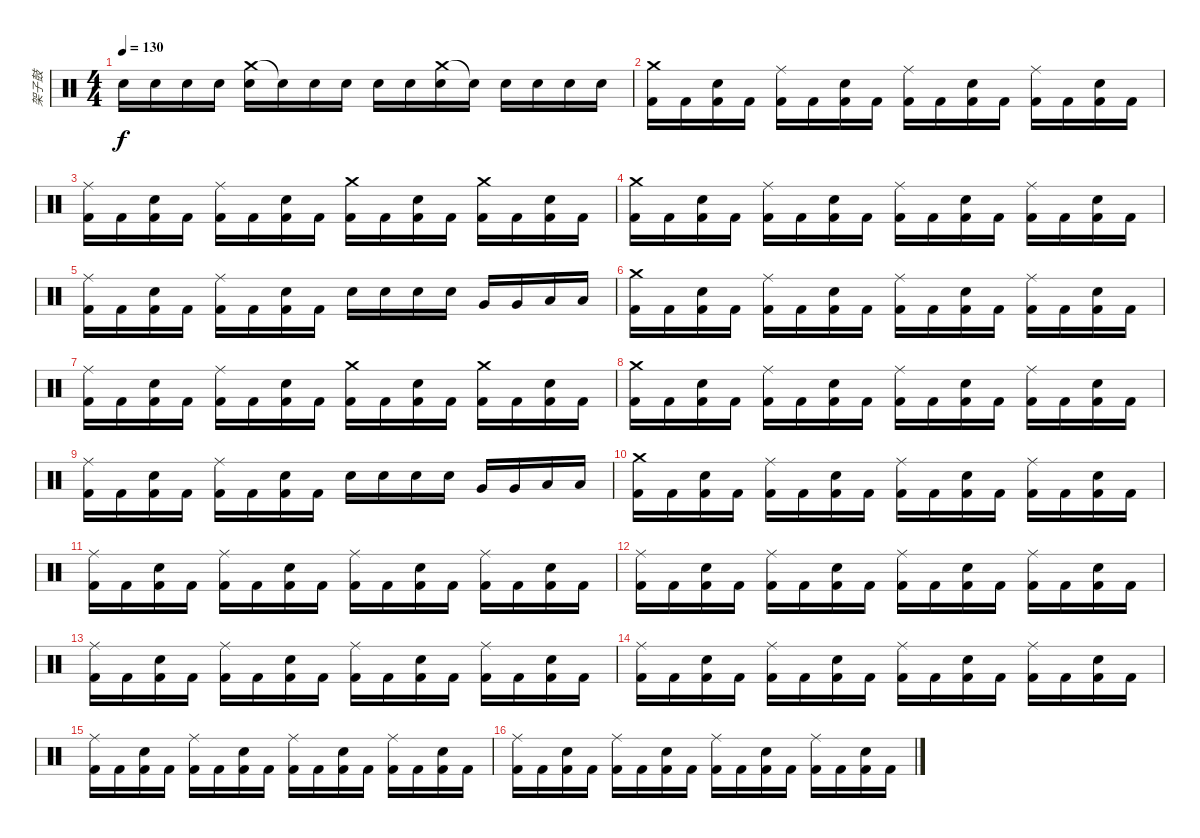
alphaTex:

\track ("架子鼓" "架子鼓") {instrument percussion}
\staff {score}
\articulation defaults
\ts (4 4)
\tempo 130
\clef neutral
\ks c "Snare (hit) 2".16{dy f} "Snare (hit) 2".16 "Snare (hit) 2".16 "Snare (hit) 2".16
("Crash medium (hit)" "Snare (hit) 2").16 "Snare (hit)"{t}.16 "Snare (hit) 2".16 "Snare (hit) 2".16 "Snare (hit) 2".16 "Snare (hit) 2".16 ("Crash medium (hit)" "Snare (hit) 2").16 "Snare (hit)"{t}.16 "Snare (hit) 2".16 "Snare (hit) 2".16 "Snare (hit) 2".16 "Snare (hit) 2".16 |
("Crash medium (hit)" "Kick (hit) 2").16 "Kick (hit) 2".16 ("Snare (hit) 2" "Kick (hit) 2").16 "Kick (hit) 2".16 ("Ride (middle)" "Kick (hit) 2").16 "Kick (hit) 2".16 ("Snare (hit) 2" "Kick (hit) 2").16 "Kick (hit) 2".16 ("Ride (middle)" "Kick (hit) 2").16 "Kick (hit) 2".16 ("Snare (hit) 2" "Kick (hit) 2").16 "Kick (hit) 2".16 ("Ride (middle)" "Kick (hit) 2").16 "Kick (hit) 2".16 ("Snare (hit) 2" "Kick (hit) 2").16 "Kick (hit) 2".16 |
("Ride (middle)" "Kick (hit) 2").16 "Kick (hit) 2".16 ("Snare (hit) 2" "Kick (hit) 2").16 "Kick (hit) 2".16 ("Ride (middle)" "Kick (hit) 2").16 "Kick (hit) 2".16 ("Snare (hit) 2" "Kick (hit) 2").16 "Kick (hit) 2".16 ("Crash medium (hit)" "Kick (hit) 2").16 "Kick (hit) 2".16 ("Snare (hit) 2" "Kick (hit) 2").16 "Kick (hit) 2".16 ("Crash medium (hit)" "Kick (hit) 2").16 "Kick (hit) 2".16 ("Snare (hit) 2" "Kick (hit) 2").16 "Kick (hit) 2".16 |
("Crash medium (hit)" "Kick (hit) 2").16 "Kick (hit) 2".16 ("Snare (hit) 2" "Kick (hit) 2").16 "Kick (hit) 2".16 ("Ride (middle)" "Kick (hit) 2").16 "Kick (hit) 2".16 ("Snare (hit) 2" "Kick (hit) 2").16 "Kick (hit) 2".16 ("Ride (middle)" "Kick (hit) 2").16 "Kick (hit) 2".16 ("Snare (hit) 2" "Kick (hit) 2").16 "Kick (hit) 2".16 ("Ride (middle)" "Kick (hit) 2").16 "Kick (hit) 2".16 ("Snare (hit) 2" "Kick (hit) 2").16 "Kick (hit) 2".16 |
("Ride (middle)" "Kick (hit) 2").16 "Kick (hit) 2".16 ("Snare (hit) 2" "Kick (hit) 2").16 "Kick (hit) 2".16 ("Ride (middle)" "Kick (hit) 2").16 "Kick (hit) 2".16 ("Snare (hit) 2" "Kick (hit) 2").16 "Kick (hit) 2".16 "Snare (hit) 2".16 "Snare (hit) 2".16 "Snare (hit) 2".16 "Snare (hit) 2".16 "Very Low Tom (hit)".16 "Very Low Tom (hit)".16 "Low Floor Tom (hit)".16 "Low Floor Tom (hit)".16 |
("Crash medium (hit)" "Kick (hit) 2").16 "Kick (hit) 2".16 ("Snare (hit) 2" "Kick (hit) 2").16 "Kick (hit) 2".16 ("Ride (middle)" "Kick (hit) 2").16 "Kick (hit) 2".16 ("Snare (hit) 2" "Kick (hit) 2").16 "Kick (hit) 2".16 ("Ride (middle)" "Kick (hit) 2").16 "Kick (hit) 2".16 ("Snare (hit) 2" "Kick (hit) 2").16 "Kick (hit) 2".16 ("Ride (middle)" "Kick (hit) 2").16 "Kick (hit) 2".16 ("Snare (hit) 2" "Kick (hit) 2").16 "Kick (hit) 2".16 |
("Ride (middle)" "Kick (hit) 2").16 "Kick (hit) 2".16 ("Snare (hit) 2" "Kick (hit) 2").16 "Kick (hit) 2".16 ("Ride (middle)" "Kick (hit) 2").16 "Kick (hit) 2".16 ("Snare (hit) 2" "Kick (hit) 2").16 "Kick (hit) 2".16 ("Crash medium (hit)" "Kick (hit) 2").16 "Kick (hit) 2".16 ("Snare (hit) 2" "Kick (hit) 2").16 "Kick (hit) 2".16 ("Crash medium (hit)" "Kick (hit) 2").16 "Kick (hit) 2".16 ("Snare (hit) 2" "Kick (hit) 2").16 "Kick (hit) 2".16 |
("Crash medium (hit)" "Kick (hit) 2").16 "Kick (hit) 2".16 ("Snare (hit) 2" "Kick (hit) 2").16 "Kick (hit) 2".16 ("Ride (middle)" "Kick (hit) 2").16 "Kick (hit) 2".16 ("Snare (hit) 2" "Kick (hit) 2").16 "Kick (hit) 2".16 ("Ride (middle)" "Kick (hit) 2").16 "Kick (hit) 2".16 ("Snare (hit) 2" "Kick (hit) 2").16 "Kick (hit) 2".16 ("Ride (middle)" "Kick (hit) 2").16 "Kick (hit) 2".16 ("Snare (hit) 2" "Kick (hit) 2").16 "Kick (hit) 2".16 |
("Ride (middle)" "Kick (hit) 2").16 "Kick (hit) 2".16 ("Snare (hit) 2" "Kick (hit) 2").16 "Kick (hit) 2".16 ("Ride (middle)" "Kick (hit) 2").16 "Kick (hit) 2".16 ("Snare (hit) 2" "Kick (hit) 2").16 "Kick (hit) 2".16 "Snare (hit) 2".16 "Snare (hit) 2".16 "Snare (hit) 2".16 "Snare (hit) 2".16 "Very Low Tom (hit)".16 "Very Low Tom (hit)".16 "Low Floor Tom (hit)".16 "Low Floor Tom (hit)".16 |
("Crash medium (hit)" "Kick (hit) 2").16 "Kick (hit) 2".16 ("Snare (hit) 2" "Kick (hit) 2").16 "Kick (hit) 2".16 ("Ride (middle)" "Kick (hit) 2").16 "Kick (hit) 2".16 ("Snare (hit) 2" "Kick (hit) 2").16 "Kick (hit) 2".16 ("Ride (middle)" "Kick (hit) 2").16 "Kick (hit) 2".16 ("Snare (hit) 2" "Kick (hit) 2").16 "Kick (hit) 2".16 ("Ride (middle)" "Kick (hit) 2").16 "Kick (hit) 2".16 ("Snare (hit) 2" "Kick (hit) 2").16 "Kick (hit) 2".16 |
("Ride (middle)" "Kick (hit) 2").16 "Kick (hit) 2".16 ("Snare (hit) 2" "Kick (hit) 2").16 "Kick (hit) 2".16 ("Ride (middle)" "Kick (hit) 2").16 "Kick (hit) 2".16 ("Snare (hit) 2" "Kick (hit) 2").16 "Kick (hit) 2".16 ("Ride (middle)" "Kick (hit) 2").16 "Kick (hit) 2".16 ("Snare (hit) 2" "Kick (hit) 2").16 "Kick (hit) 2".16 ("Ride (middle)" "Kick (hit) 2").16 "Kick (hit) 2".16 ("Snare (hit) 2" "Kick (hit) 2").16 "Kick (hit) 2".16 |
("Ride (middle)" "Kick (hit) 2").16 "Kick (hit) 2".16 ("Snare (hit) 2" "Kick (hit) 2").16 "Kick (hit) 2".16 ("Ride (middle)" "Kick (hit) 2").16 "Kick (hit) 2".16 ("Snare (hit) 2" "Kick (hit) 2").16 "Kick (hit) 2".16 ("Ride (middle)" "Kick (hit) 2").16 "Kick (hit) 2".16 ("Snare (hit) 2" "Kick (hit) 2").16 "Kick (hit) 2".16 ("Ride (middle)" "Kick (hit) 2").16 "Kick (hit) 2".16 ("Snare (hit) 2" "Kick (hit) 2").16 "Kick (hit) 2".16 |
("Ride (middle)" "Kick (hit) 2").16 "Kick (hit) 2".16 ("Snare (hit) 2" "Kick (hit) 2").16 "Kick (hit) 2".16 ("Ride (middle)" "Kick (hit) 2").16 "Kick (hit) 2".16 ("Snare (hit) 2" "Kick (hit) 2").16 "Kick (hit) 2".16 ("Ride (middle)" "Kick (hit) 2").16 "Kick (hit) 2".16 ("Snare (hit) 2" "Kick (hit) 2").16 "Kick (hit) 2".16 ("Ride (middle)" "Kick (hit) 2").16 "Kick (hit) 2".16 ("Snare (hit) 2" "Kick (hit) 2").16 "Kick (hit) 2".16 |
("Ride (middle)" "Kick (hit) 2").16 "Kick (hit) 2".16 ("Snare (hit) 2" "Kick (hit) 2").16 "Kick (hit) 2".16 ("Ride (middle)" "Kick (hit) 2").16 "Kick (hit) 2".16 ("Snare (hit) 2" "Kick (hit) 2").16 "Kick (hit) 2".16 ("Ride (middle)" "Kick (hit) 2").16 "Kick (hit) 2".16 ("Snare (hit) 2" "Kick (hit) 2").16 "Kick (hit) 2".16 ("Ride (middle)" "Kick (hit) 2").16 "Kick (hit) 2".16 ("Snare (hit) 2" "Kick (hit) 2").16 "Kick (hit) 2".16 |
("Ride (middle)" "Kick (hit) 2").16 "Kick (hit) 2".16 ("Snare (hit) 2" "Kick (hit) 2").16 "Kick (hit) 2".16 ("Ride (middle)" "Kick (hit) 2").16 "Kick (hit) 2".16 ("Snare (hit) 2" "Kick (hit) 2").16 "Kick (hit) 2".16 ("Ride (middle)" "Kick (hit) 2").16 "Kick (hit) 2".16 ("Snare (hit) 2" "Kick (hit) 2").16 "Kick (hit) 2".16 ("Ride (middle)" "Kick (hit) 2").16 "Kick (hit) 2".16 ("Snare (hit) 2" "Kick (hit) 2").16 "Kick (hit) 2".16 |
("Ride (middle)" "Kick (hit) 2").16 "Kick (hit) 2".16 ("Snare (hit) 2" "Kick (hit) 2").16 "Kick (hit) 2".16 ("Ride (middle)" "Kick (hit) 2").16 "Kick (hit) 2".16 ("Snare (hit) 2" "Kick (hit) 2").16 "Kick (hit) 2".16 ("Ride (middle)" "Kick (hit) 2").16 "Kick (hit) 2".16 ("Snare (hit) 2" "Kick (hit) 2").16 "Kick (hit) 2".16 ("Ride (middle)" "Kick (hit) 2").16 "Kick (hit) 2".16 ("Snare (hit) 2" "Kick (hit) 2").16 "Kick (hit) 2".16
